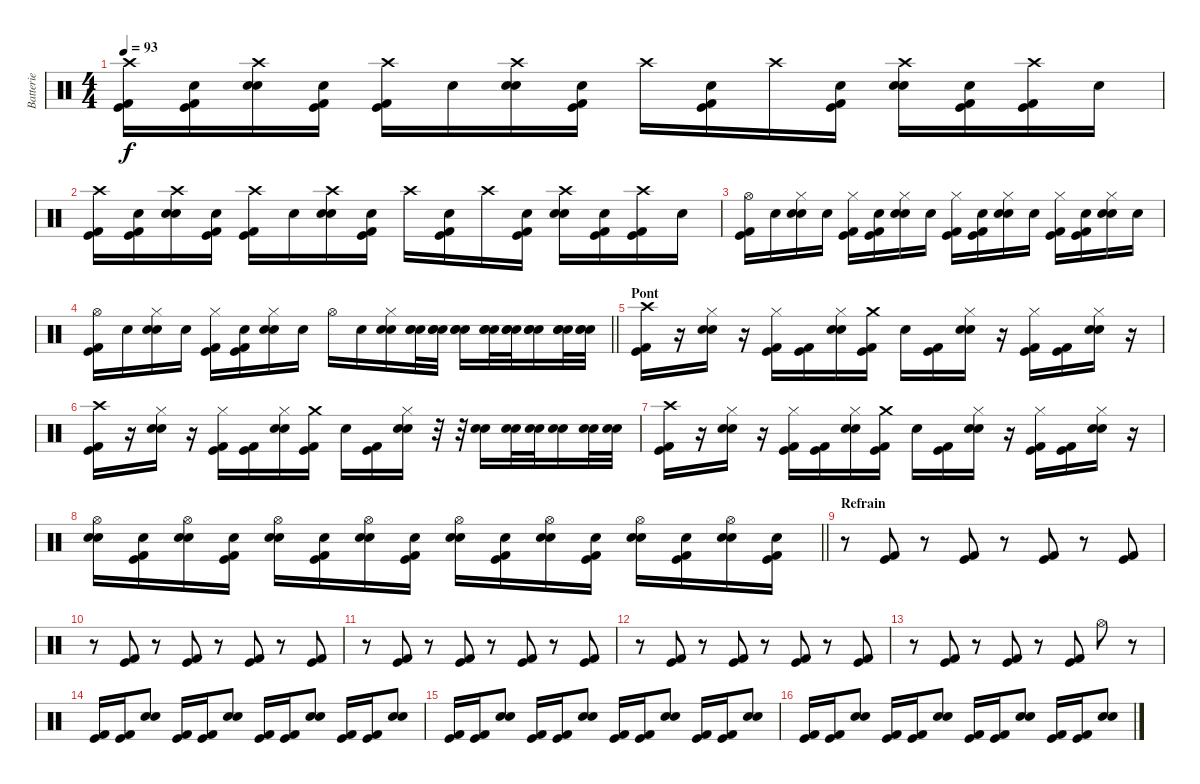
\track ("Batterie" "Batterie") {instrument percussion}
\staff {score}
\articulation defaults
\ts (4 4)
\tempo 93
\clef neutral
\ks c
("Crash high (hit)" "Kick (hit)" "Kick (hit) 2").16{dy f} ("Snare (hit)" "Kick (hit)" "Kick (hit) 2").16 ("Crash high (hit)" "Electric Snare (hit)" "Snare (hit) 2").16 ("Snare (hit)" "Kick (hit)" "Kick (hit) 2").16 ("Crash high (hit)" "Kick (hit)" "Kick (hit) 2").16 "Snare (hit)".16 ("Crash high (hit)" "Electric Snare (hit)" "Snare (hit) 2").16 ("Snare (hit)" "Kick (hit)" "Kick (hit) 2").16 "Crash high (hit)".16 ("Snare (hit)" "Kick (hit)" "Kick (hit) 2").16 "Crash high (hit)".16 ("Snare (hit)" "Kick (hit)" "Kick (hit) 2").16 ("Crash high (hit)" "Electric Snare (hit)" "Snare (hit) 2").16 ("Snare (hit)" "Kick (hit)" "Kick (hit) 2").16 ("Crash high (hit)" "Kick (hit)" "Kick (hit) 2").16 "Snare (hit)".16 |
("Crash high (hit)" "Kick (hit)" "Kick (hit) 2").16 ("Snare (hit)" "Kick (hit)" "Kick (hit) 2").16 ("Crash high (hit)" "Electric Snare (hit)" "Snare (hit) 2").16 ("Snare (hit)" "Kick (hit)" "Kick (hit) 2").16 ("Crash high (hit)" "Kick (hit)" "Kick (hit) 2").16 "Snare (hit)".16 ("Crash high (hit)" "Electric Snare (hit)" "Snare (hit) 2").16 ("Snare (hit)" "Kick (hit)" "Kick (hit) 2").16 "Crash high (hit)".16 ("Snare (hit)" "Kick (hit)" "Kick (hit) 2").16 "Crash high (hit)".16 ("Snare (hit)" "Kick (hit)" "Kick (hit) 2").16 ("Crash high (hit)" "Electric Snare (hit)" "Snare (hit) 2").16 ("Snare (hit)" "Kick (hit)" "Kick (hit) 2").16 ("Crash high (hit)" "Kick (hit)" "Kick (hit) 2").16 "Snare (hit)".16 |
("Hi-Hat (open)" "Kick (hit)" "Kick (hit) 2").16 "Snare (hit)".16 ("Hi-Hat (closed)" "Electric Snare (hit)" "Snare (hit) 2").16 "Snare (hit)".16 ("Hi-Hat (closed)" "Kick (hit)" "Kick (hit) 2").16 ("Snare (hit)" "Kick (hit)" "Kick (hit) 2").16 ("Hi-Hat (closed)" "Electric Snare (hit)" "Snare (hit) 2").16 "Snare (hit)".16 ("Hi-Hat (closed)" "Kick (hit)" "Kick (hit) 2").16 ("Snare (hit)" "Kick (hit)" "Kick (hit) 2").16 ("Hi-Hat (closed)" "Electric Snare (hit)" "Snare (hit) 2").16 "Snare (hit)".16 ("Hi-Hat (closed)" "Kick (hit)" "Kick (hit) 2").16 ("Snare (hit)" "Kick (hit)" "Kick (hit) 2").16 ("Hi-Hat (closed)" "Electric Snare (hit)" "Snare (hit) 2").16 "Snare (hit)".16 |
\barLineRight lightlight
("Hi-Hat (open)" "Kick (hit)" "Kick (hit) 2").16 "Snare (hit)".16 ("Hi-Hat (closed)" "Electric Snare (hit)" "Snare (hit) 2").16 "Snare (hit)".16 ("Hi-Hat (closed)" "Kick (hit)" "Kick (hit) 2").16 ("Snare (hit)" "Kick (hit)" "Kick (hit) 2").16 ("Hi-Hat (closed)" "Electric Snare (hit)" "Snare (hit) 2").16 "Snare (hit)".16 "Hi-Hat (open)".16 "Snare (hit)".16 ("Hi-Hat (closed)" "Electric Snare (hit)" "Snare (hit) 2").16 ("Snare (hit)" "Electric Snare (hit)" "Snare (hit) 2").32 ("Snare (hit)" "Electric Snare (hit)" "Snare (hit) 2").32 ("Snare (hit)" "Electric Snare (hit)" "Snare (hit) 2").16 ("Snare (hit)" "Electric Snare (hit)" "Snare (hit) 2").32 ("Snare (hit)" "Electric Snare (hit)" "Snare (hit) 2").32 ("Snare (hit)" "Electric Snare (hit)" "Snare (hit) 2").16 ("Snare (hit)" "Electric Snare (hit)" "Snare (hit) 2").32 ("Snare (hit)" "Electric Snare (hit)" "Snare (hit) 2").32 |
\section ("" "Pont")
("Crash high (hit)" "Kick (hit)" "Kick (hit) 2").16 r.16 ("Hi-Hat (closed)" "Electric Snare (hit)" "Snare (hit) 2").16 r.16 ("Hi-Hat (closed)" "Kick (hit)" "Kick (hit) 2").16 ("Kick (hit)" "Kick (hit) 2").16 ("Hi-Hat (closed)" "Electric Snare (hit)" "Snare (hit) 2").16 ("Crash medium (hit)" "Kick (hit)" "Kick (hit) 2").16 "Snare (hit)".16 ("Kick (hit)" "Kick (hit) 2").16 ("Hi-Hat (closed)" "Electric Snare (hit)" "Snare (hit) 2").16 r.16 ("Hi-Hat (closed)" "Kick (hit)" "Kick (hit) 2").16 ("Kick (hit)" "Kick (hit) 2").16 ("Hi-Hat (closed)" "Electric Snare (hit)" "Snare (hit) 2").16 r.16 |
("Crash high (hit)" "Kick (hit)" "Kick (hit) 2").16 r.16 ("Hi-Hat (closed)" "Electric Snare (hit)" "Snare (hit) 2").16 r.16 ("Hi-Hat (closed)" "Kick (hit)" "Kick (hit) 2").16 ("Kick (hit)" "Kick (hit) 2").16 ("Hi-Hat (closed)" "Electric Snare (hit)" "Snare (hit) 2").16 ("Crash medium (hit)" "Kick (hit)" "Kick (hit) 2").16 "Snare (hit)".16 ("Kick (hit)" "Kick (hit) 2").16 ("Electric Snare (hit)" "Snare (hit) 2" "Hi-Hat (closed)").16 r.32 r.32 ("Electric Snare (hit)" "Snare (hit) 2").16 ("Electric Snare (hit)" "Snare (hit) 2").32 ("Electric Snare (hit)" "Snare (hit) 2").32 ("Electric Snare (hit)" "Snare (hit) 2").16 ("Electric Snare (hit)" "Snare (hit) 2").32 ("Electric Snare (hit)" "Snare (hit) 2").32 |
("Crash high (hit)" "Kick (hit)" "Kick (hit) 2").16 r.16 ("Hi-Hat (closed)" "Electric Snare (hit)" "Snare (hit) 2").16 r.16 ("Hi-Hat (closed)" "Kick (hit)" "Kick (hit) 2").16 ("Kick (hit)" "Kick (hit) 2").16 ("Hi-Hat (closed)" "Electric Snare (hit)" "Snare (hit) 2").16 ("Crash medium (hit)" "Kick (hit)" "Kick (hit) 2").16 "Snare (hit)".16 ("Kick (hit)" "Kick (hit) 2").16 ("Hi-Hat (closed)" "Electric Snare (hit)" "Snare (hit) 2").16 r.16 ("Hi-Hat (closed)" "Kick (hit)" "Kick (hit) 2").16 ("Kick (hit)" "Kick (hit) 2").16 ("Hi-Hat (closed)" "Electric Snare (hit)" "Snare (hit) 2").16 r.16 |
\barLineRight lightlight
("Hi-Hat (open)" "Electric Snare (hit)" "Snare (hit) 2").16 ("Snare (hit)" "Kick (hit)" "Kick (hit) 2").16 ("Hi-Hat (open)" "Electric Snare (hit)" "Snare (hit) 2").16 ("Snare (hit)" "Kick (hit)" "Kick (hit) 2").16 ("Hi-Hat (open)" "Electric Snare (hit)" "Snare (hit) 2").16 ("Snare (hit)" "Kick (hit)" "Kick (hit) 2").16 ("Hi-Hat (open)" "Electric Snare (hit)" "Snare (hit) 2").16 ("Snare (hit)" "Kick (hit)" "Kick (hit) 2").16 ("Hi-Hat (open)" "Electric Snare (hit)" "Snare (hit) 2").16 ("Snare (hit)" "Kick (hit)" "Kick (hit) 2").16 ("Hi-Hat (open)" "Electric Snare (hit)" "Snare (hit) 2").16 ("Snare (hit)" "Kick (hit)" "Kick (hit) 2").16 ("Hi-Hat (open)" "Electric Snare (hit)" "Snare (hit) 2").16 ("Snare (hit)" "Kick (hit)" "Kick (hit) 2").16 ("Hi-Hat (open)" "Electric Snare (hit)" "Snare (hit) 2").16 ("Snare (hit)" "Kick (hit)" "Kick (hit) 2").16 |
\section ("" "Refrain")
r.8 ("Kick (hit)" "Kick (hit) 2").8 r.8 ("Kick (hit)" "Kick (hit) 2").8 r.8 ("Kick (hit)" "Kick (hit) 2").8 r.8 ("Kick (hit)" "Kick (hit) 2").8 |
r.8 ("Kick (hit)" "Kick (hit) 2").8 r.8 ("Kick (hit)" "Kick (hit) 2").8 r.8 ("Kick (hit)" "Kick (hit) 2").8 r.8 ("Kick (hit)" "Kick (hit) 2").8 |
r.8 ("Kick (hit)" "Kick (hit) 2").8 r.8 ("Kick (hit)" "Kick (hit) 2").8 r.8 ("Kick (hit)" "Kick (hit) 2").8 r.8 ("Kick (hit)" "Kick (hit) 2").8 |
r.8 ("Kick (hit)" "Kick (hit) 2").8 r.8 ("Kick (hit)" "Kick (hit) 2").8 r.8 ("Kick (hit)" "Kick (hit) 2").8 r.8 ("Kick (hit)" "Kick (hit) 2").8 |
r.8 ("Kick (hit)" "Kick (hit) 2").8 r.8 ("Kick (hit)" "Kick (hit) 2").8 r.8 ("Kick (hit)" "Kick (hit) 2").8 "Hi-Hat (open)".8 r.8 |
("Kick (hit)" "Kick (hit) 2").16 ("Kick (hit)" "Kick (hit) 2").16 ("Electric Snare (hit)" "Snare (hit) 2").8 ("Kick (hit)" "Kick (hit) 2").16 ("Kick (hit)" "Kick (hit) 2").16 ("Electric Snare (hit)" "Snare (hit) 2").8 ("Kick (hit)" "Kick (hit) 2").16 ("Kick (hit)" "Kick (hit) 2").16 ("Electric Snare (hit)" "Snare (hit) 2").8 ("Kick (hit)" "Kick (hit) 2").16 ("Kick (hit)" "Kick (hit) 2").16 ("Electric Snare (hit)" "Snare (hit) 2").8 |
("Kick (hit)" "Kick (hit) 2").16 ("Kick (hit)" "Kick (hit) 2").16 ("Electric Snare (hit)" "Snare (hit) 2").8 ("Kick (hit)" "Kick (hit) 2").16 ("Kick (hit)" "Kick (hit) 2").16 ("Electric Snare (hit)" "Snare (hit) 2").8 ("Kick (hit)" "Kick (hit) 2").16 ("Kick (hit)" "Kick (hit) 2").16 ("Electric Snare (hit)" "Snare (hit) 2").8 ("Kick (hit)" "Kick (hit) 2").16 ("Kick (hit)" "Kick (hit) 2").16 ("Electric Snare (hit)" "Snare (hit) 2").8 |
("Kick (hit)" "Kick (hit) 2").16 ("Kick (hit)" "Kick (hit) 2").16 ("Electric Snare (hit)" "Snare (hit) 2").8 ("Kick (hit)" "Kick (hit) 2").16 ("Kick (hit)" "Kick (hit) 2").16 ("Electric Snare (hit)" "Snare (hit) 2").8 ("Kick (hit)" "Kick (hit) 2").16 ("Kick (hit)" "Kick (hit) 2").16 ("Electric Snare (hit)" "Snare (hit) 2").8 ("Kick (hit)" "Kick (hit) 2").16 ("Kick (hit)" "Kick (hit) 2").16 ("Electric Snare (hit)" "Snare (hit) 2").8
